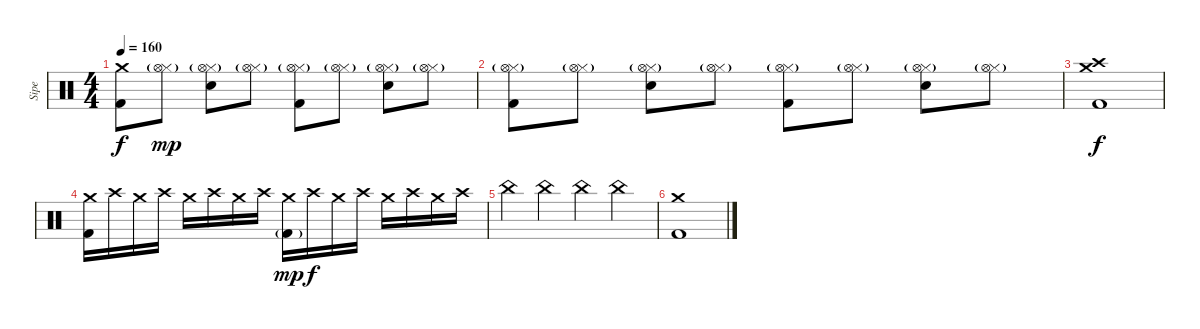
\track ("Sipe" "Sipe") {instrument percussion}
\staff {score}
\articulation defaults
\ts (4 4)
\tempo 160
\clef neutral
\ks c
("Crash medium (hit)" "Kick (hit) 2").8{dy f} ("Hi-Hat (closed)" "Hi-Hat (open)"{g}).8{dy mp} ("Hi-Hat (closed)" "Snare (hit) 2" "Hi-Hat (open)"{g}).8 ("Hi-Hat (closed)" "Hi-Hat (open)"{g}).8 ("Hi-Hat (closed)" "Kick (hit) 2" "Hi-Hat (open)"{g}).8 ("Hi-Hat (closed)" "Hi-Hat (open)"{g}).8 ("Hi-Hat (closed)" "Snare (hit) 2" "Hi-Hat (open)"{g}).8 ("Hi-Hat (closed)" "Hi-Hat (open)"{g}).8 |
("Hi-Hat (closed)" "Kick (hit) 2" "Hi-Hat (open)"{g}).8 ("Hi-Hat (closed)" "Hi-Hat (open)"{g}).8 ("Hi-Hat (closed)" "Snare (hit) 2" "Hi-Hat (open)"{g}).8 ("Hi-Hat (closed)" "Hi-Hat (open)"{g}).8 ("Hi-Hat (closed)" "Kick (hit) 2" "Hi-Hat (open)"{g}).8 ("Hi-Hat (closed)" "Hi-Hat (open)"{g}).8 ("Hi-Hat (closed)" "Snare (hit) 2" "Hi-Hat (open)"{g}).8 ("Hi-Hat (closed)" "Hi-Hat (open)"{g}).8 |
("Kick (hit) 2" "Crash high (hit)" "Crash medium (hit)").1{dy f} |
("Crash medium (hit)" "Kick (hit) 2").16 "Crash high (hit)".16 "Crash medium (hit)".16 "Crash high (hit)".16 "Crash medium (hit)".16 "Crash high (hit)".16 "Crash medium (hit)".16 "Crash high (hit)".16 ("Crash medium (hit)" "Kick (hit) 2"{g}).16{dy mp} "Crash high (hit)".16{dy f} "Crash medium (hit)".16 "Crash high (hit)".16 "Crash medium (hit)".16 "Crash high (hit)".16 "Crash medium (hit)".16 "Crash high (hit)".16 |
"China (hit)".4 "China (hit)".4 "China (hit)".4 "China (hit)".4 |
("Crash medium (hit)" "Kick (hit) 2").1
